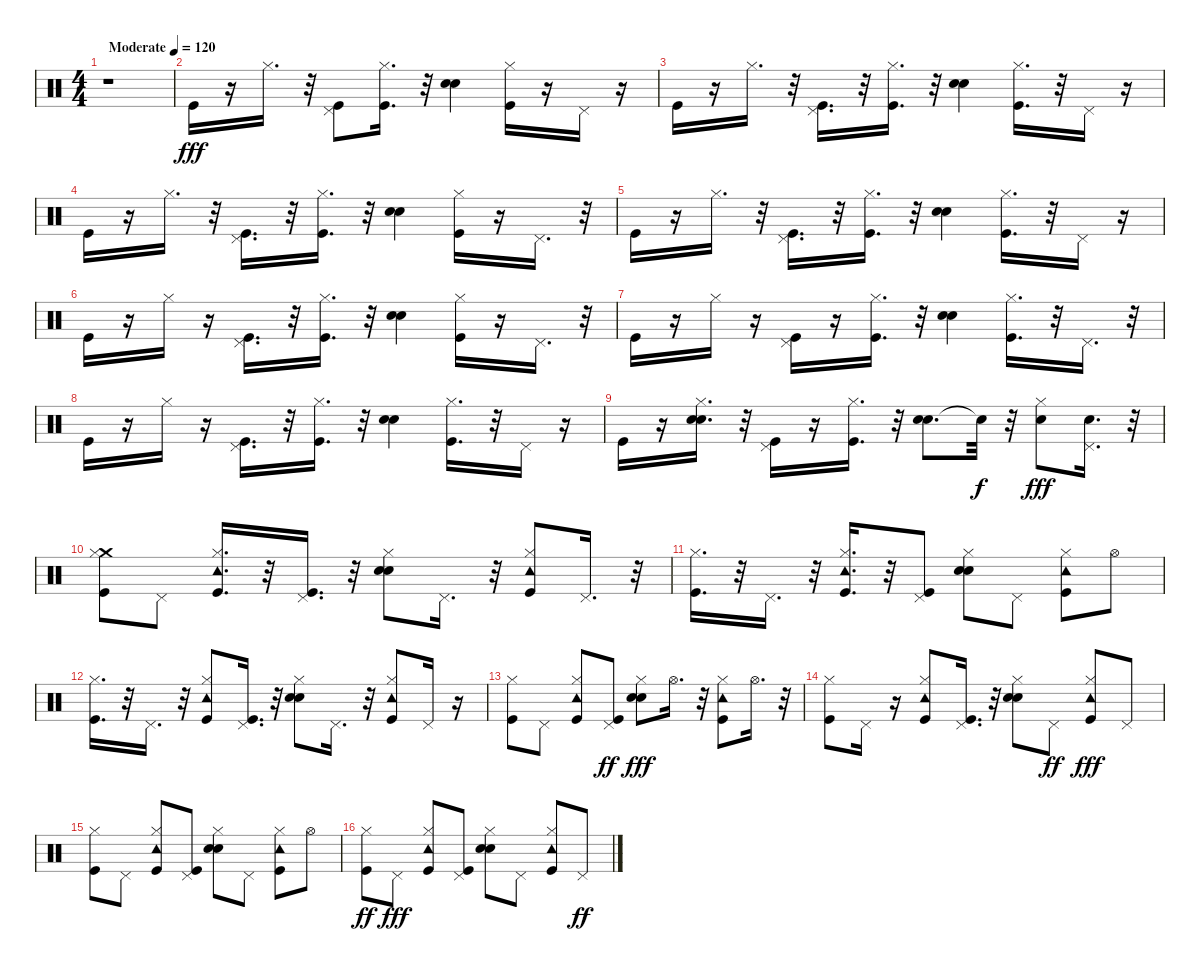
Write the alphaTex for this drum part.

\track "" {instrument percussion}
\staff {score}
\articulation defaults
\ts (4 4)
\tempo (120 "Moderate")
\clef neutral
\ks c
r.1{dy fff} |
"Kick (hit)".16 r.16 "Hi-Hat (closed)".16{d} r.32 ("Pedal Hi-Hat (hit)" "Kick (hit)").8 ("Kick (hit)" "Hi-Hat (closed)").16{d} r.32 ("Hand Clap (hit)" "Snare (hit) 2").4 ("Kick (hit)" "Hi-Hat (closed)").16 r.16 "Pedal Hi-Hat (hit)".16 r.16 |
"Kick (hit)".16 r.16 "Hi-Hat (closed)".16{d} r.32 ("Pedal Hi-Hat (hit)" "Kick (hit)").16{d} r.32 ("Kick (hit)" "Hi-Hat (closed)").16{d} r.32 ("Hand Clap (hit)" "Snare (hit) 2").4 ("Hi-Hat (closed)" "Kick (hit)").16{d} r.32 "Pedal Hi-Hat (hit)".16 r.16 |
"Kick (hit)".16 r.16 "Hi-Hat (closed)".16{d} r.32 ("Pedal Hi-Hat (hit)" "Kick (hit)").16{d} r.32 ("Hi-Hat (closed)" "Kick (hit)").16{d} r.32 ("Hand Clap (hit)" "Snare (hit) 2").4 ("Hi-Hat (closed)" "Kick (hit)").16 r.16 "Pedal Hi-Hat (hit)".16{d} r.32 |
"Kick (hit)".16 r.16 "Hi-Hat (closed)".16{d} r.32 ("Pedal Hi-Hat (hit)" "Kick (hit)").16{d} r.32 ("Kick (hit)" "Hi-Hat (closed)").16{d} r.32 ("Hand Clap (hit)" "Snare (hit) 2").4 ("Kick (hit)" "Hi-Hat (closed)").16{d} r.32 "Pedal Hi-Hat (hit)".16 r.16 |
"Kick (hit)".16 r.16 "Hi-Hat (closed)".16 r.16 ("Kick (hit)" "Pedal Hi-Hat (hit)").16{d} r.32 ("Kick (hit)" "Hi-Hat (closed)").16{d} r.32 ("Hand Clap (hit)" "Snare (hit) 2").4 ("Kick (hit)" "Hi-Hat (closed)").16 r.16 "Pedal Hi-Hat (hit)".16{d} r.32 |
"Kick (hit)".16 r.16 "Hi-Hat (closed)".16 r.16 ("Kick (hit)" "Pedal Hi-Hat (hit)").16 r.16 ("Kick (hit)" "Hi-Hat (closed)").16{d} r.32 ("Hand Clap (hit)" "Snare (hit) 2").4 ("Hi-Hat (closed)" "Kick (hit)").16{d} r.32 "Pedal Hi-Hat (hit)".16{d} r.32 |
"Kick (hit)".16 r.16 "Hi-Hat (closed)".16 r.16 ("Kick (hit)" "Pedal Hi-Hat (hit)").16{d} r.32 ("Kick (hit)" "Hi-Hat (closed)").16{d} r.32 ("Hand Clap (hit)" "Snare (hit) 2").4 ("Kick (hit)" "Hi-Hat (closed)").16{d} r.32 "Pedal Hi-Hat (hit)".16 r.16 |
"Kick (hit)".16 r.16 ("Hi-Hat (closed)" "Hand Clap (hit)" "Snare (hit) 2").16{d} r.32 ("Pedal Hi-Hat (hit)" "Kick (hit)").16 r.16 ("Kick (hit)" "Hi-Hat (closed)").16{d} r.32 ("Hand Clap (hit)" "Snare (hit) 2").8{d} "Snare (hit)"{t}.32{dy f} r.32 ("Hi-Hat (closed)" "Hand Clap (hit)").8{dy fff} ("Pedal Hi-Hat (hit)" "Hand Clap (hit)").16{d} r.32 |
("Crash medium (hit)" "Kick (hit)" "Hi-Hat (closed)").8 "Pedal Hi-Hat (hit)".8 ("Hi-Hat (closed)" "Kick (hit)" "Tambourine (hit)").16{d} r.32 ("Pedal Hi-Hat (hit)" "Kick (hit)").16{d} r.32 ("Hand Clap (hit)" "Hi-Hat (closed)" "Snare (hit) 2").8 "Pedal Hi-Hat (hit)".16{d} r.32 ("Hi-Hat (closed)" "Kick (hit)" "Tambourine (hit)").8 "Pedal Hi-Hat (hit)".16{d} r.32 |
("Hi-Hat (closed)" "Kick (hit)").16{d} r.32 "Pedal Hi-Hat (hit)".16{d} r.32 ("Hi-Hat (closed)" "Kick (hit)" "Tambourine (hit)").16{d} r.32 ("Pedal Hi-Hat (hit)" "Kick (hit)").8 ("Hi-Hat (closed)" "Hand Clap (hit)" "Snare (hit) 2").8 "Pedal Hi-Hat (hit)".8 ("Hi-Hat (closed)" "Kick (hit)" "Tambourine (hit)").8 "Hi-Hat (open)".8 |
("Hi-Hat (closed)" "Kick (hit)").16{d} r.32 "Pedal Hi-Hat (hit)".16{d} r.32 ("Tambourine (hit)" "Kick (hit)" "Hi-Hat (closed)").8 ("Pedal Hi-Hat (hit)" "Kick (hit)").16{d} r.32 ("Hi-Hat (closed)" "Hand Clap (hit)" "Snare (hit) 2").8 "Pedal Hi-Hat (hit)".16{d} r.32 ("Tambourine (hit)" "Hi-Hat (closed)" "Kick (hit)").8 "Pedal Hi-Hat (hit)".16 r.16 |
("Kick (hit)" "Hi-Hat (closed)").8 "Pedal Hi-Hat (hit)".8 ("Tambourine (hit)" "Hi-Hat (closed)" "Kick (hit)").8 ("Kick (hit)" "Pedal Hi-Hat (hit)").8{dy ff} ("Hi-Hat (closed)" "Hand Clap (hit)" "Snare (hit) 2").8{dy fff} "Hi-Hat (open)".16{d} r.32 ("Hi-Hat (closed)" "Kick (hit)" "Tambourine (hit)").8 "Hi-Hat (open)".16{d} r.32 |
("Kick (hit)" "Hi-Hat (closed)").8 "Pedal Hi-Hat (hit)".16 r.16 ("Kick (hit)" "Hi-Hat (closed)" "Tambourine (hit)").8 ("Kick (hit)" "Pedal Hi-Hat (hit)").16{d} r.32 ("Hand Clap (hit)" "Hi-Hat (closed)" "Snare (hit) 2").8 "Pedal Hi-Hat (hit)".8{dy ff} ("Hi-Hat (closed)" "Kick (hit)" "Tambourine (hit)").8{dy fff} "Pedal Hi-Hat (hit)".8 |
("Kick (hit)" "Hi-Hat (closed)").8 "Pedal Hi-Hat (hit)".8 ("Tambourine (hit)" "Hi-Hat (closed)" "Kick (hit)").8 ("Kick (hit)" "Pedal Hi-Hat (hit)").8 ("Hi-Hat (closed)" "Hand Clap (hit)" "Snare (hit) 2").8 "Pedal Hi-Hat (hit)".8 ("Tambourine (hit)" "Hi-Hat (closed)" "Kick (hit)").8 "Hi-Hat (open)".8 |
("Kick (hit)" "Hi-Hat (closed)").8{dy ff} "Pedal Hi-Hat (hit)".8{dy fff} ("Kick (hit)" "Hi-Hat (closed)" "Tambourine (hit)").8 ("Kick (hit)" "Pedal Hi-Hat (hit)").8 ("Hand Clap (hit)" "Hi-Hat (closed)" "Snare (hit) 2").8 "Pedal Hi-Hat (hit)".8 ("Tambourine (hit)" "Kick (hit)" "Hi-Hat (closed)").8 "Pedal Hi-Hat (hit)".8{dy ff}
